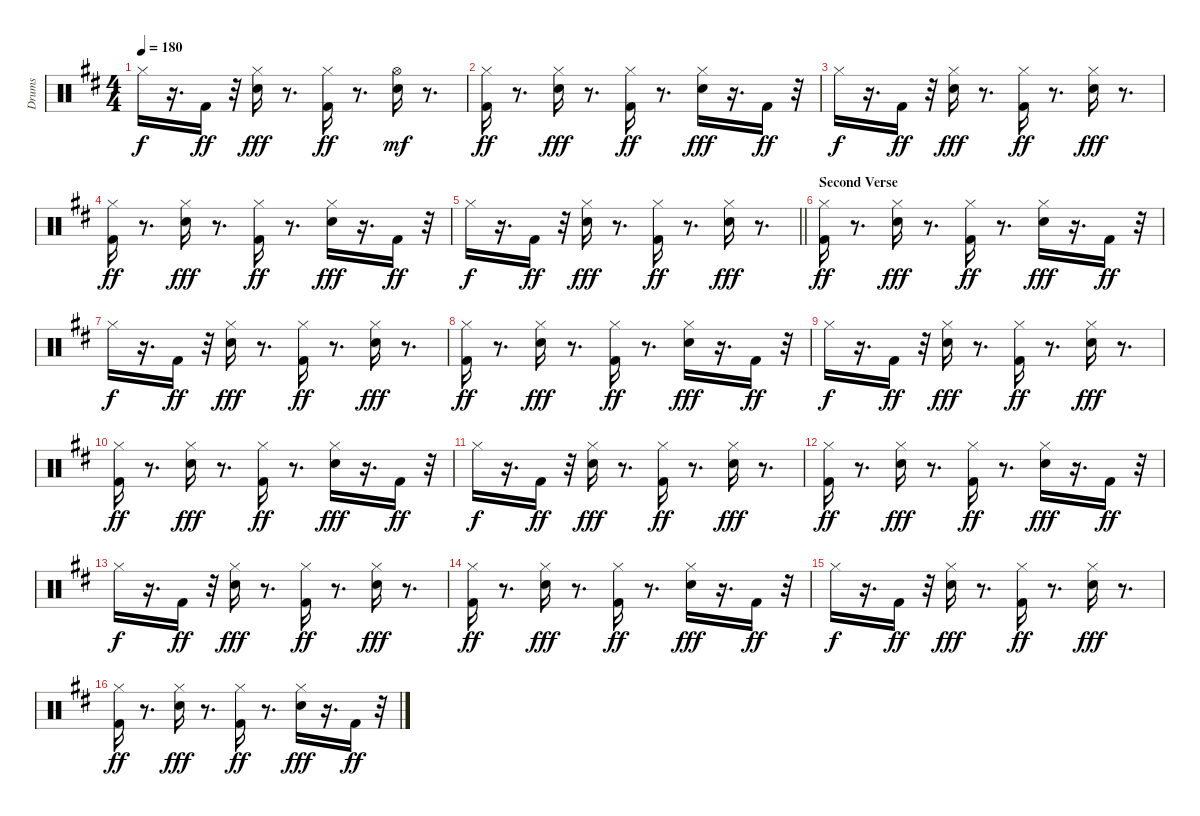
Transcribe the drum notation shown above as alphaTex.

\track ("Drums" "Drums") {instrument percussion}
\staff {score}
\articulation defaults
\ts (4 4)
\tempo 180
\clef neutral
\ks bminor "Hi-Hat (closed)".16{dy f}
r.16{d} "Kick (hit) 2".16{dy ff} r.32 ("Snare (hit) 2" "Hi-Hat (closed)").16{dy fff} r.8{d} ("Kick (hit) 2" "Hi-Hat (closed)").16{dy ff} r.8{d} ("Snare (hit) 2" "Hi-Hat (open)").16{dy mf} r.8{d} |
("Kick (hit) 2" "Hi-Hat (closed)").16{dy ff} r.8{d} ("Snare (hit) 2" "Hi-Hat (closed)").16{dy fff} r.8{d} ("Kick (hit) 2" "Hi-Hat (closed)").16{dy ff} r.8{d} ("Snare (hit) 2" "Hi-Hat (closed)").16{dy fff} r.16{d} "Kick (hit) 2".16{dy ff} r.32 |
"Hi-Hat (closed)".16{dy f} r.16{d} "Kick (hit) 2".16{dy ff} r.32 ("Snare (hit) 2" "Hi-Hat (closed)").16{dy fff} r.8{d} ("Kick (hit) 2" "Hi-Hat (closed)").16{dy ff} r.8{d} ("Snare (hit) 2" "Hi-Hat (closed)").16{dy fff} r.8{d} |
("Kick (hit) 2" "Hi-Hat (closed)").16{dy ff} r.8{d} ("Snare (hit) 2" "Hi-Hat (closed)").16{dy fff} r.8{d} ("Kick (hit) 2" "Hi-Hat (closed)").16{dy ff} r.8{d} ("Snare (hit) 2" "Hi-Hat (closed)").16{dy fff} r.16{d} "Kick (hit) 2".16{dy ff} r.32 |
\barLineRight lightlight "Hi-Hat (closed)".16{dy f}
r.16{d} "Kick (hit) 2".16{dy ff} r.32 ("Snare (hit) 2" "Hi-Hat (closed)").16{dy fff} r.8{d} ("Kick (hit) 2" "Hi-Hat (closed)").16{dy ff} r.8{d} ("Snare (hit) 2" "Hi-Hat (closed)").16{dy fff} r.8{d} |
\section ("" "Second Verse")
("Kick (hit) 2" "Hi-Hat (closed)").16{dy ff} r.8{d} ("Snare (hit) 2" "Hi-Hat (closed)").16{dy fff} r.8{d} ("Kick (hit) 2" "Hi-Hat (closed)").16{dy ff} r.8{d} ("Snare (hit) 2" "Hi-Hat (closed)").16{dy fff} r.16{d} "Kick (hit) 2".16{dy ff} r.32 |
"Hi-Hat (closed)".16{dy f} r.16{d} "Kick (hit) 2".16{dy ff} r.32 ("Snare (hit) 2" "Hi-Hat (closed)").16{dy fff} r.8{d} ("Kick (hit) 2" "Hi-Hat (closed)").16{dy ff} r.8{d} ("Snare (hit) 2" "Hi-Hat (closed)").16{dy fff} r.8{d} |
("Kick (hit) 2" "Hi-Hat (closed)").16{dy ff} r.8{d} ("Snare (hit) 2" "Hi-Hat (closed)").16{dy fff} r.8{d} ("Kick (hit) 2" "Hi-Hat (closed)").16{dy ff} r.8{d} ("Snare (hit) 2" "Hi-Hat (closed)").16{dy fff} r.16{d} "Kick (hit) 2".16{dy ff} r.32 |
"Hi-Hat (closed)".16{dy f} r.16{d} "Kick (hit) 2".16{dy ff} r.32 ("Snare (hit) 2" "Hi-Hat (closed)").16{dy fff} r.8{d} ("Kick (hit) 2" "Hi-Hat (closed)").16{dy ff} r.8{d} ("Snare (hit) 2" "Hi-Hat (closed)").16{dy fff} r.8{d} |
("Kick (hit) 2" "Hi-Hat (closed)").16{dy ff} r.8{d} ("Snare (hit) 2" "Hi-Hat (closed)").16{dy fff} r.8{d} ("Kick (hit) 2" "Hi-Hat (closed)").16{dy ff} r.8{d} ("Snare (hit) 2" "Hi-Hat (closed)").16{dy fff} r.16{d} "Kick (hit) 2".16{dy ff} r.32 |
"Hi-Hat (closed)".16{dy f} r.16{d} "Kick (hit) 2".16{dy ff} r.32 ("Snare (hit) 2" "Hi-Hat (closed)").16{dy fff} r.8{d} ("Kick (hit) 2" "Hi-Hat (closed)").16{dy ff} r.8{d} ("Snare (hit) 2" "Hi-Hat (closed)").16{dy fff} r.8{d} |
("Kick (hit) 2" "Hi-Hat (closed)").16{dy ff} r.8{d} ("Snare (hit) 2" "Hi-Hat (closed)").16{dy fff} r.8{d} ("Kick (hit) 2" "Hi-Hat (closed)").16{dy ff} r.8{d} ("Snare (hit) 2" "Hi-Hat (closed)").16{dy fff} r.16{d} "Kick (hit) 2".16{dy ff} r.32 |
"Hi-Hat (closed)".16{dy f} r.16{d} "Kick (hit) 2".16{dy ff} r.32 ("Snare (hit) 2" "Hi-Hat (closed)").16{dy fff} r.8{d} ("Kick (hit) 2" "Hi-Hat (closed)").16{dy ff} r.8{d} ("Snare (hit) 2" "Hi-Hat (closed)").16{dy fff} r.8{d} |
("Kick (hit) 2" "Hi-Hat (closed)").16{dy ff} r.8{d} ("Snare (hit) 2" "Hi-Hat (closed)").16{dy fff} r.8{d} ("Kick (hit) 2" "Hi-Hat (closed)").16{dy ff} r.8{d} ("Snare (hit) 2" "Hi-Hat (closed)").16{dy fff} r.16{d} "Kick (hit) 2".16{dy ff} r.32 |
"Hi-Hat (closed)".16{dy f} r.16{d} "Kick (hit) 2".16{dy ff} r.32 ("Snare (hit) 2" "Hi-Hat (closed)").16{dy fff} r.8{d} ("Kick (hit) 2" "Hi-Hat (closed)").16{dy ff} r.8{d} ("Snare (hit) 2" "Hi-Hat (closed)").16{dy fff} r.8{d} |
("Kick (hit) 2" "Hi-Hat (closed)").16{dy ff} r.8{d} ("Snare (hit) 2" "Hi-Hat (closed)").16{dy fff} r.8{d} ("Kick (hit) 2" "Hi-Hat (closed)").16{dy ff} r.8{d} ("Snare (hit) 2" "Hi-Hat (closed)").16{dy fff} r.16{d} "Kick (hit) 2".16{dy ff} r.32
